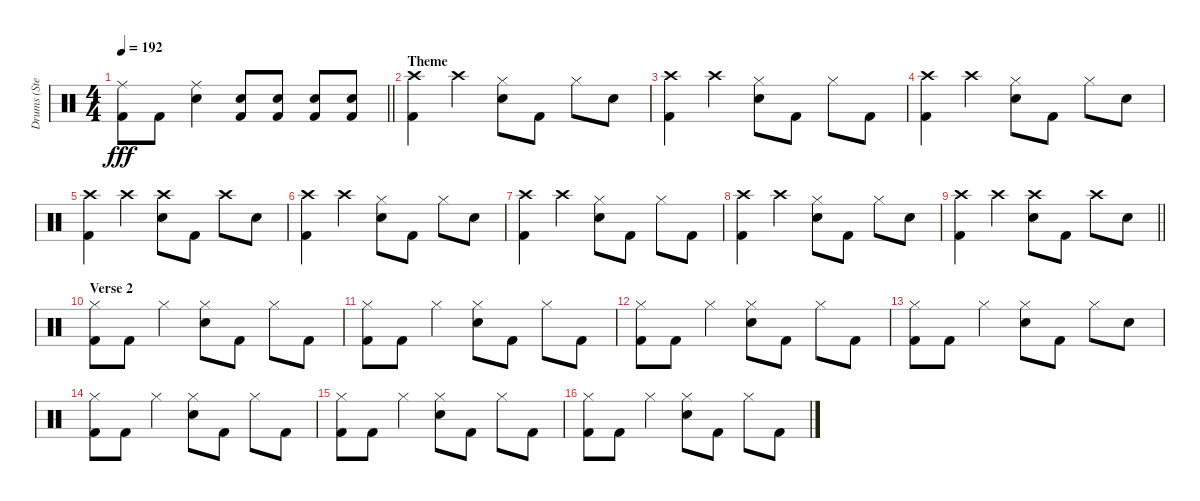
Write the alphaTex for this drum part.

\track ("Drums (Stevo32)" "Drums (Ste") {instrument percussion}
\staff {score}
\articulation defaults
\ts (4 4)
\tempo 192
\clef neutral
\barLineRight lightlight
\ks c
("Ride (middle)" "Kick (hit) 2").8{dy fff} "Kick (hit) 2".8 ("Ride (middle)" "Electric Snare (hit)").4 ("Electric Snare (hit)" "Kick (hit) 2").8 ("Electric Snare (hit)" "Kick (hit) 2").8 ("Electric Snare (hit)" "Kick (hit) 2").8 ("Electric Snare (hit)" "Kick (hit) 2").8 |
\section ("" "Theme")
("Crash high (hit)" "Kick (hit) 2").4 "Crash high (hit)".4 ("Hi-Hat (closed)" "Electric Snare (hit)").8 "Kick (hit) 2".8 "Hi-Hat (closed)".8 "Electric Snare (hit)".8 |
("Crash high (hit)" "Kick (hit) 2").4 "Crash high (hit)".4 ("Hi-Hat (closed)" "Electric Snare (hit)").8 "Kick (hit) 2".8 "Hi-Hat (closed)".8 "Kick (hit) 2".8 |
("Crash high (hit)" "Kick (hit) 2").4 "Crash high (hit)".4 ("Hi-Hat (closed)" "Electric Snare (hit)").8 "Kick (hit) 2".8 "Hi-Hat (closed)".8 "Electric Snare (hit)".8 |
("Crash high (hit)" "Kick (hit) 2").4 "Crash high (hit)".4 ("Crash high (hit)" "Electric Snare (hit)").8 "Kick (hit) 2".8 "Crash high (hit)".8 "Electric Snare (hit)".8 |
("Crash high (hit)" "Kick (hit) 2").4 "Crash high (hit)".4 ("Hi-Hat (closed)" "Electric Snare (hit)").8 "Kick (hit) 2".8 "Hi-Hat (closed)".8 "Electric Snare (hit)".8 |
("Crash high (hit)" "Kick (hit) 2").4 "Crash high (hit)".4 ("Hi-Hat (closed)" "Electric Snare (hit)").8 "Kick (hit) 2".8 "Hi-Hat (closed)".8 "Kick (hit) 2".8 |
("Crash high (hit)" "Kick (hit) 2").4 "Crash high (hit)".4 ("Hi-Hat (closed)" "Electric Snare (hit)").8 "Kick (hit) 2".8 "Hi-Hat (closed)".8 "Electric Snare (hit)".8 |
\barLineRight lightlight
("Crash high (hit)" "Kick (hit) 2").4 "Crash high (hit)".4 ("Crash high (hit)" "Electric Snare (hit)").8 "Kick (hit) 2".8 "Crash high (hit)".8 "Electric Snare (hit)".8 |
\section ("" "Verse 2")
("Hi-Hat (closed)" "Kick (hit) 2").8 "Kick (hit) 2".8 "Hi-Hat (closed)".4 ("Hi-Hat (closed)" "Electric Snare (hit)").8 "Kick (hit) 2".8 "Hi-Hat (closed)".8 "Kick (hit) 2".8 |
("Hi-Hat (closed)" "Kick (hit) 2").8 "Kick (hit) 2".8 "Hi-Hat (closed)".4 ("Hi-Hat (closed)" "Electric Snare (hit)").8 "Kick (hit) 2".8 "Hi-Hat (closed)".8 "Kick (hit) 2".8 |
("Hi-Hat (closed)" "Kick (hit) 2").8 "Kick (hit) 2".8 "Hi-Hat (closed)".4 ("Hi-Hat (closed)" "Electric Snare (hit)").8 "Kick (hit) 2".8 "Hi-Hat (closed)".8 "Kick (hit) 2".8 |
("Hi-Hat (closed)" "Kick (hit) 2").8 "Kick (hit) 2".8 "Hi-Hat (closed)".4 ("Hi-Hat (closed)" "Electric Snare (hit)").8 "Kick (hit) 2".8 "Hi-Hat (closed)".8 "Electric Snare (hit)".8 |
("Hi-Hat (closed)" "Kick (hit) 2").8 "Kick (hit) 2".8 "Hi-Hat (closed)".4 ("Hi-Hat (closed)" "Electric Snare (hit)").8 "Kick (hit) 2".8 "Hi-Hat (closed)".8 "Kick (hit) 2".8 |
("Hi-Hat (closed)" "Kick (hit) 2").8 "Kick (hit) 2".8 "Hi-Hat (closed)".4 ("Hi-Hat (closed)" "Electric Snare (hit)").8 "Kick (hit) 2".8 "Hi-Hat (closed)".8 "Kick (hit) 2".8 |
("Hi-Hat (closed)" "Kick (hit) 2").8 "Kick (hit) 2".8 "Hi-Hat (closed)".4 ("Hi-Hat (closed)" "Electric Snare (hit)").8 "Kick (hit) 2".8 "Hi-Hat (closed)".8 "Kick (hit) 2".8
